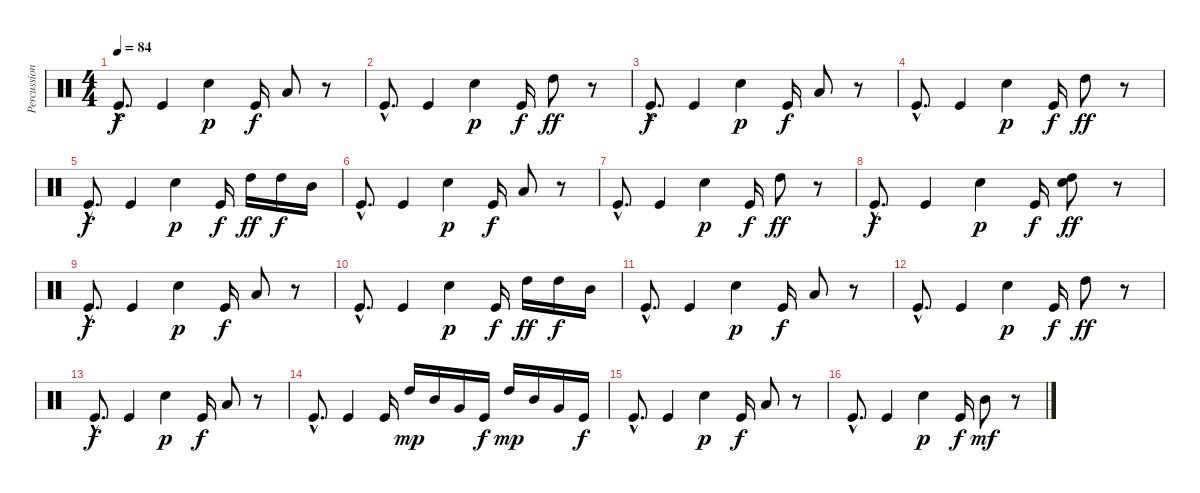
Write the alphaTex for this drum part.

\track ("Percussions" "Percussion") {instrument percussion}
\staff {score}
\articulation defaults
\ts (4 4)
\tempo 84
\clef neutral
\ks c "Kick (hit)"{hac}.8{d dy f} "Kick (hit)".4 "Snare (hit) 2".4{dy p} "Kick (hit)".16{dy f} "Low Tom (hit)".8
r.8 |
"Kick (hit)"{hac}.8{d} "Kick (hit)".4 "Snare (hit) 2".4{dy p} "Kick (hit)".16{dy f} "High Tom (hit)".8{dy ff} r.8 |
"Kick (hit)"{hac}.8{d dy f} "Kick (hit)".4 "Snare (hit) 2".4{dy p} "Kick (hit)".16{dy f} "Low Tom (hit)".8 r.8 |
"Kick (hit)"{hac}.8{d} "Kick (hit)".4 "Snare (hit) 2".4{dy p} "Kick (hit)".16{dy f} "High Tom (hit)".8{dy ff} r.8 |
"Kick (hit)"{hac}.8{d dy f} "Kick (hit)".4 "Snare (hit) 2".4{dy p} "Kick (hit)".16{dy f} "High Tom (hit)".16{dy ff} "High Tom (hit)".16{dy f} "Mid Tom (hit)".16 |
"Kick (hit)"{hac}.8{d} "Kick (hit)".4 "Snare (hit) 2".4{dy p} "Kick (hit)".16{dy f} "Low Tom (hit)".8 r.8 |
"Kick (hit)"{hac}.8{d} "Kick (hit)".4 "Snare (hit) 2".4{dy p} "Kick (hit)".16{dy f} "High Tom (hit)".8{dy ff} r.8 |
"Kick (hit)"{hac}.8{d dy f} "Kick (hit)".4 "Snare (hit) 2".4{dy p} "Kick (hit)".16{dy f} ("Snare (hit) 2" "High Tom (hit)").8{dy ff} r.8 |
"Kick (hit)"{hac}.8{d dy f} "Kick (hit)".4 "Snare (hit) 2".4{dy p} "Kick (hit)".16{dy f} "Low Tom (hit)".8 r.8 |
"Kick (hit)"{hac}.8{d} "Kick (hit)".4 "Snare (hit) 2".4{dy p} "Kick (hit)".16{dy f} "High Tom (hit)".16{dy ff} "High Tom (hit)".16{dy f} "Mid Tom (hit)".16 |
"Kick (hit)"{hac}.8{d} "Kick (hit)".4 "Snare (hit) 2".4{dy p} "Kick (hit)".16{dy f} "Low Tom (hit)".8 r.8 |
"Kick (hit)"{hac}.8{d} "Kick (hit)".4 "Snare (hit) 2".4{dy p} "Kick (hit)".16{dy f} "High Tom (hit)".8{dy ff} r.8 |
"Kick (hit)"{hac}.8{d dy f} "Kick (hit)".4 "Snare (hit) 2".4{dy p} "Kick (hit)".16{dy f} "Low Tom (hit)".8 r.8 |
"Kick (hit)"{hac}.8{d} "Kick (hit)".4 "Kick (hit)".16 "High Tom (hit)".16{dy mp} "Mid Tom (hit)".16 "Very Low Tom (hit)".16 "Kick (hit)".16{dy f} "High Tom (hit)".16{dy mp} "Mid Tom (hit)".16 "Very Low Tom (hit)".16 "Kick (hit)".16{dy f} |
"Kick (hit)"{hac}.8{d} "Kick (hit)".4 "Snare (hit) 2".4{dy p} "Kick (hit)".16{dy f} "Low Tom (hit)".8 r.8 |
"Kick (hit)"{hac}.8{d} "Kick (hit)".4 "Snare (hit) 2".4{dy p} "Kick (hit)".16{dy f} "Mid Tom (hit)".8{dy mf} r.8
